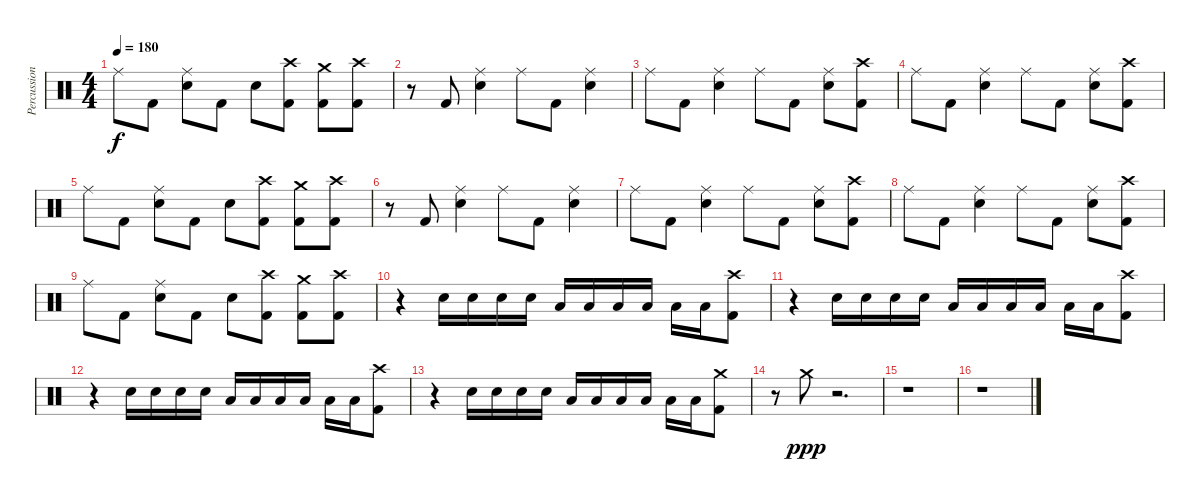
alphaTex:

\track ("Percussion" "Percussion") {instrument percussion}
\staff {score}
\articulation defaults
\ts (4 4)
\tempo 180
\clef neutral
\ks c "Ride (middle)".8{dy f} "Kick (hit) 2".8
("Ride (middle)" "Electric Snare (hit)").8 "Kick (hit) 2".8 "Electric Snare (hit)".8 ("Crash high (hit)" "Kick (hit) 2").8 ("Crash medium (hit)" "Kick (hit) 2").8 ("Crash high (hit)" "Kick (hit) 2").8 |
r.8 "Kick (hit) 2".8 ("Ride (middle)" "Electric Snare (hit)").4 "Ride (middle)".8 "Kick (hit) 2".8 ("Ride (middle)" "Electric Snare (hit)").4 |
"Ride (middle)".8 "Kick (hit) 2".8 ("Ride (middle)" "Electric Snare (hit)").4 "Ride (middle)".8 "Kick (hit) 2".8 ("Ride (middle)" "Electric Snare (hit)").8 ("Crash high (hit)" "Kick (hit) 2").8 |
"Ride (middle)".8 "Kick (hit) 2".8 ("Ride (middle)" "Electric Snare (hit)").4 "Ride (middle)".8 "Kick (hit) 2".8 ("Ride (middle)" "Electric Snare (hit)").8 ("Crash high (hit)" "Kick (hit) 2").8 |
"Ride (middle)".8 "Kick (hit) 2".8 ("Ride (middle)" "Electric Snare (hit)").8 "Kick (hit) 2".8 "Electric Snare (hit)".8 ("Crash high (hit)" "Kick (hit) 2").8 ("Crash medium (hit)" "Kick (hit) 2").8 ("Crash high (hit)" "Kick (hit) 2").8 |
r.8 "Kick (hit) 2".8 ("Ride (middle)" "Electric Snare (hit)").4 "Ride (middle)".8 "Kick (hit) 2".8 ("Ride (middle)" "Electric Snare (hit)").4 |
"Ride (middle)".8 "Kick (hit) 2".8 ("Ride (middle)" "Electric Snare (hit)").4 "Ride (middle)".8 "Kick (hit) 2".8 ("Ride (middle)" "Electric Snare (hit)").8 ("Crash high (hit)" "Kick (hit) 2").8 |
"Ride (middle)".8 "Kick (hit) 2".8 ("Ride (middle)" "Electric Snare (hit)").4 "Ride (middle)".8 "Kick (hit) 2".8 ("Ride (middle)" "Electric Snare (hit)").8 ("Crash high (hit)" "Kick (hit) 2").8 |
"Ride (middle)".8 "Kick (hit) 2".8 ("Ride (middle)" "Electric Snare (hit)").8 "Kick (hit) 2".8 "Electric Snare (hit)".8 ("Crash high (hit)" "Kick (hit) 2").8 ("Crash medium (hit)" "Kick (hit) 2").8 ("Crash high (hit)" "Kick (hit) 2").8 |
r.4 "Electric Snare (hit)".16 "Electric Snare (hit)".16 "Electric Snare (hit)".16 "Electric Snare (hit)".16 "Low Tom (hit)".16 "Low Tom (hit)".16 "Low Tom (hit)".16 "Low Tom (hit)".16 "Low Floor Tom (hit)".16 "Low Floor Tom (hit)".16 ("Crash high (hit)" "Kick (hit) 2").8 |
r.4 "Electric Snare (hit)".16 "Electric Snare (hit)".16 "Electric Snare (hit)".16 "Electric Snare (hit)".16 "Low Tom (hit)".16 "Low Tom (hit)".16 "Low Tom (hit)".16 "Low Tom (hit)".16 "Low Floor Tom (hit)".16 "Low Floor Tom (hit)".16 ("Crash high (hit)" "Kick (hit) 2").8 |
r.4 "Electric Snare (hit)".16 "Electric Snare (hit)".16 "Electric Snare (hit)".16 "Electric Snare (hit)".16 "Low Tom (hit)".16 "Low Tom (hit)".16 "Low Tom (hit)".16 "Low Tom (hit)".16 "Low Floor Tom (hit)".16 "Low Floor Tom (hit)".16 ("Crash high (hit)" "Kick (hit) 2").8 |
r.4 "Electric Snare (hit)".16 "Electric Snare (hit)".16 "Electric Snare (hit)".16 "Electric Snare (hit)".16 "Low Tom (hit)".16 "Low Tom (hit)".16 "Low Tom (hit)".16 "Low Tom (hit)".16 "Low Floor Tom (hit)".16 "Low Floor Tom (hit)".16 ("Crash medium (hit)" "Kick (hit) 2").8 |
r.8 "Crash medium (hit)".8{dy ppp} r.2{d} |
r.1 |
r.1
